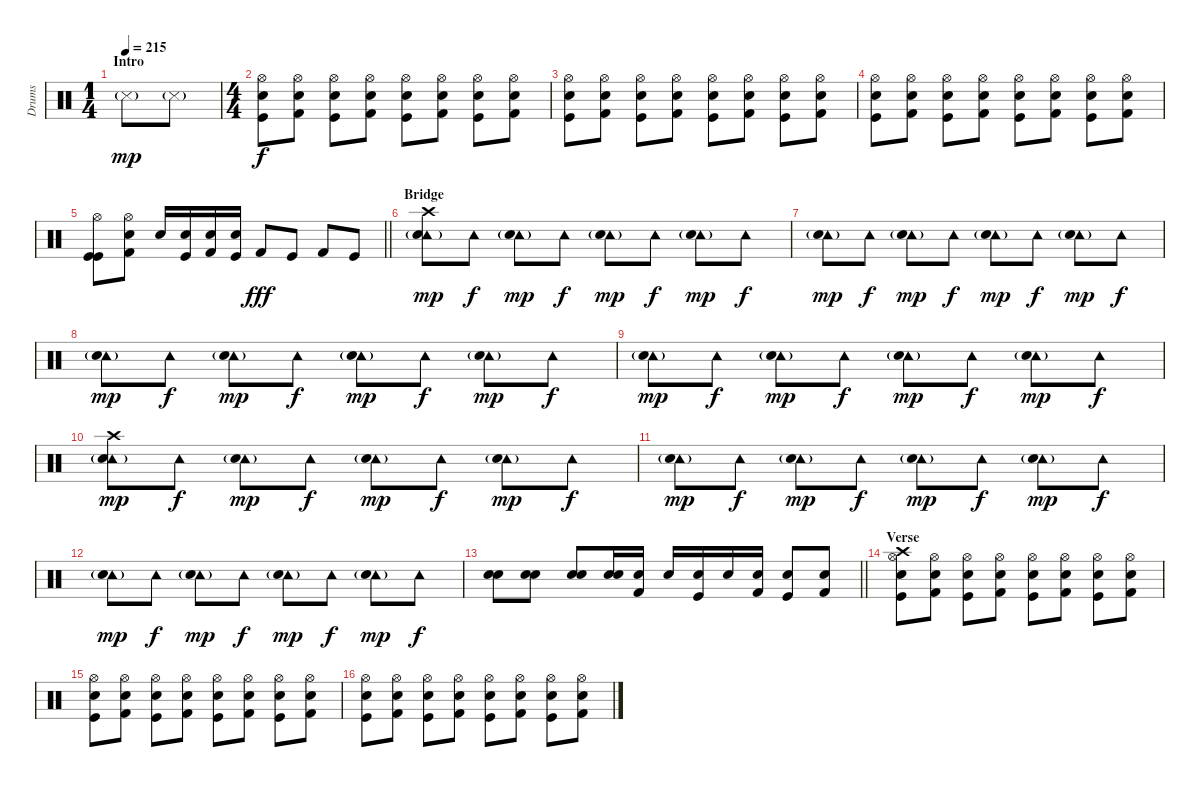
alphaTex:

\track ("Drums" "Drums") {instrument percussion}
\staff {score}
\articulation defaults
\ts (1 4)
\section ("" "Intro")
\tempo 215
\clef neutral
\ks c "Snare (side stick) 3"{g}.8{dy mp} "Snare (side stick) 3"{g}.8
|
\ts (4 4)
("Hi-Hat (open)" "Snare (hit) 2" "Kick (hit)").8{dy f} ("Hi-Hat (open)" "Electric Snare (hit)" "Kick (hit) 2").8 ("Hi-Hat (open)" "Snare (hit) 2" "Kick (hit)").8 ("Hi-Hat (open)" "Electric Snare (hit)" "Kick (hit) 2").8 ("Hi-Hat (open)" "Snare (hit) 2" "Kick (hit)").8 ("Hi-Hat (open)" "Electric Snare (hit)" "Kick (hit) 2").8 ("Hi-Hat (open)" "Snare (hit) 2" "Kick (hit)").8 ("Hi-Hat (open)" "Electric Snare (hit)" "Kick (hit) 2").8 |
("Hi-Hat (open)" "Snare (hit) 2" "Kick (hit)").8 ("Hi-Hat (open)" "Electric Snare (hit)" "Kick (hit) 2").8 ("Hi-Hat (open)" "Snare (hit) 2" "Kick (hit)").8 ("Hi-Hat (open)" "Electric Snare (hit)" "Kick (hit) 2").8 ("Hi-Hat (open)" "Snare (hit) 2" "Kick (hit)").8 ("Hi-Hat (open)" "Electric Snare (hit)" "Kick (hit) 2").8 ("Hi-Hat (open)" "Snare (hit) 2" "Kick (hit)").8 ("Hi-Hat (open)" "Electric Snare (hit)" "Kick (hit) 2").8 |
("Hi-Hat (open)" "Snare (hit) 2" "Kick (hit)").8 ("Hi-Hat (open)" "Electric Snare (hit)" "Kick (hit) 2").8 ("Hi-Hat (open)" "Snare (hit) 2" "Kick (hit)").8 ("Hi-Hat (open)" "Electric Snare (hit)" "Kick (hit) 2").8 ("Hi-Hat (open)" "Snare (hit) 2" "Kick (hit)").8 ("Hi-Hat (open)" "Electric Snare (hit)" "Kick (hit) 2").8 ("Hi-Hat (open)" "Snare (hit) 2" "Kick (hit)").8 ("Hi-Hat (open)" "Electric Snare (hit)" "Kick (hit) 2").8 |
\barLineRight lightlight
("Hi-Hat (open)" "Kick (hit)" "Kick (hit)").8 ("Hi-Hat (open)" "Electric Snare (hit)" "Kick (hit) 2").8 "Snare (hit) 2".16 ("Snare (hit) 2" "Kick (hit)").16 ("Snare (hit) 2" "Kick (hit) 2").16 ("Snare (hit) 2" "Kick (hit)").16 "Kick (hit) 2".8{dy fff} "Kick (hit)".8 "Kick (hit) 2".8 "Kick (hit)".8 |
\section ("" "Bridge")
("Crash high (hit)" "Tambourine (hit)" "Electric Snare (hit)"{g}).8{dy mp} "Tambourine (hit)".8{dy f} ("Tambourine (hit)" "Electric Snare (hit)"{g}).8{dy mp} "Tambourine (hit)".8{dy f} ("Tambourine (hit)" "Electric Snare (hit)"{g}).8{dy mp} "Tambourine (hit)".8{dy f} ("Tambourine (hit)" "Electric Snare (hit)"{g}).8{dy mp} "Tambourine (hit)".8{dy f} |
("Tambourine (hit)" "Electric Snare (hit)"{g}).8{dy mp} "Tambourine (hit)".8{dy f} ("Tambourine (hit)" "Electric Snare (hit)"{g}).8{dy mp} "Tambourine (hit)".8{dy f} ("Tambourine (hit)" "Electric Snare (hit)"{g}).8{dy mp} "Tambourine (hit)".8{dy f} ("Tambourine (hit)" "Electric Snare (hit)"{g}).8{dy mp} "Tambourine (hit)".8{dy f} |
("Tambourine (hit)" "Electric Snare (hit)"{g}).8{dy mp} "Tambourine (hit)".8{dy f} ("Tambourine (hit)" "Electric Snare (hit)"{g}).8{dy mp} "Tambourine (hit)".8{dy f} ("Tambourine (hit)" "Electric Snare (hit)"{g}).8{dy mp} "Tambourine (hit)".8{dy f} ("Tambourine (hit)" "Electric Snare (hit)"{g}).8{dy mp} "Tambourine (hit)".8{dy f} |
("Tambourine (hit)" "Electric Snare (hit)"{g}).8{dy mp} "Tambourine (hit)".8{dy f} ("Tambourine (hit)" "Electric Snare (hit)"{g}).8{dy mp} "Tambourine (hit)".8{dy f} ("Tambourine (hit)" "Electric Snare (hit)"{g}).8{dy mp} "Tambourine (hit)".8{dy f} ("Tambourine (hit)" "Electric Snare (hit)"{g}).8{dy mp} "Tambourine (hit)".8{dy f} |
("Crash high (hit)" "Tambourine (hit)" "Electric Snare (hit)"{g}).8{dy mp} "Tambourine (hit)".8{dy f} ("Tambourine (hit)" "Electric Snare (hit)"{g}).8{dy mp} "Tambourine (hit)".8{dy f} ("Tambourine (hit)" "Electric Snare (hit)"{g}).8{dy mp} "Tambourine (hit)".8{dy f} ("Tambourine (hit)" "Electric Snare (hit)"{g}).8{dy mp} "Tambourine (hit)".8{dy f} |
("Tambourine (hit)" "Electric Snare (hit)"{g}).8{dy mp} "Tambourine (hit)".8{dy f} ("Tambourine (hit)" "Electric Snare (hit)"{g}).8{dy mp} "Tambourine (hit)".8{dy f} ("Tambourine (hit)" "Electric Snare (hit)"{g}).8{dy mp} "Tambourine (hit)".8{dy f} ("Tambourine (hit)" "Electric Snare (hit)"{g}).8{dy mp} "Tambourine (hit)".8{dy f} |
("Tambourine (hit)" "Electric Snare (hit)"{g}).8{dy mp} "Tambourine (hit)".8{dy f} ("Tambourine (hit)" "Electric Snare (hit)"{g}).8{dy mp} "Tambourine (hit)".8{dy f} ("Tambourine (hit)" "Electric Snare (hit)"{g}).8{dy mp} "Tambourine (hit)".8{dy f} ("Tambourine (hit)" "Electric Snare (hit)"{g}).8{dy mp} "Tambourine (hit)".8{dy f} |
\barLineRight lightlight
("Snare (hit) 2" "Electric Snare (hit)").8 ("Snare (hit) 2" "Electric Snare (hit)").8 ("Snare (hit) 2" "Electric Snare (hit)").8 ("Snare (hit) 2" "Electric Snare (hit)").16 ("Kick (hit) 2" "Electric Snare (hit)").16 "Snare (hit) 2".16 ("Kick (hit)" "Electric Snare (hit)").16 "Snare (hit) 2".16 ("Kick (hit) 2" "Electric Snare (hit)").16 ("Snare (hit) 2" "Kick (hit)").8 ("Snare (hit) 2" "Kick (hit) 2").8 |
\section ("" "Verse")
("Crash high (hit)" "Hi-Hat (open)" "Snare (hit) 2" "Kick (hit)").8 ("Hi-Hat (open)" "Electric Snare (hit)" "Kick (hit) 2").8 ("Hi-Hat (open)" "Snare (hit) 2" "Kick (hit)").8 ("Hi-Hat (open)" "Electric Snare (hit)" "Kick (hit) 2").8 ("Hi-Hat (open)" "Snare (hit) 2" "Kick (hit)").8 ("Hi-Hat (open)" "Electric Snare (hit)" "Kick (hit) 2").8 ("Hi-Hat (open)" "Snare (hit) 2" "Kick (hit)").8 ("Hi-Hat (open)" "Electric Snare (hit)" "Kick (hit) 2").8 |
("Hi-Hat (open)" "Snare (hit) 2" "Kick (hit)").8 ("Hi-Hat (open)" "Electric Snare (hit)" "Kick (hit) 2").8 ("Hi-Hat (open)" "Snare (hit) 2" "Kick (hit)").8 ("Hi-Hat (open)" "Electric Snare (hit)" "Kick (hit) 2").8 ("Hi-Hat (open)" "Snare (hit) 2" "Kick (hit)").8 ("Hi-Hat (open)" "Electric Snare (hit)" "Kick (hit) 2").8 ("Hi-Hat (open)" "Snare (hit) 2" "Kick (hit)").8 ("Hi-Hat (open)" "Electric Snare (hit)" "Kick (hit) 2").8 |
("Hi-Hat (open)" "Snare (hit) 2" "Kick (hit)").8 ("Hi-Hat (open)" "Electric Snare (hit)" "Kick (hit) 2").8 ("Hi-Hat (open)" "Snare (hit) 2" "Kick (hit)").8 ("Hi-Hat (open)" "Electric Snare (hit)" "Kick (hit) 2").8 ("Hi-Hat (open)" "Snare (hit) 2" "Kick (hit)").8 ("Hi-Hat (open)" "Electric Snare (hit)" "Kick (hit) 2").8 ("Hi-Hat (open)" "Snare (hit) 2" "Kick (hit)").8 ("Hi-Hat (open)" "Electric Snare (hit)" "Kick (hit) 2").8
